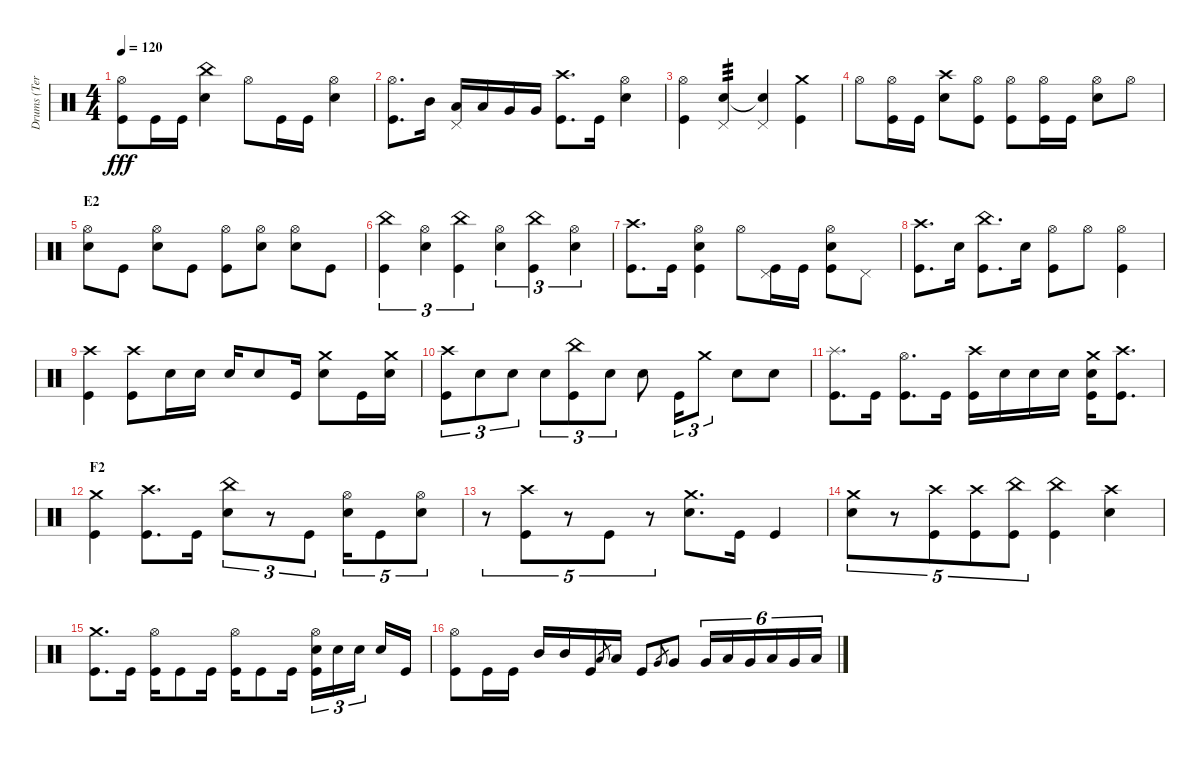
\track ("Drums (Terry Bozzio)" "Drums (Ter") {instrument percussion}
\staff {score}
\articulation defaults
\ts (4 4)
\tempo 120
\clef neutral
\ks c
("Hi-Hat (open)" "Kick (hit)").8{dy fff} "Kick (hit)".16 "Kick (hit)".16 ("China (hit)" "Snare (hit) 2").4 "Hi-Hat (open)".8 "Kick (hit)".16 "Kick (hit)".16 ("Hi-Hat (open)" "Snare (hit) 2").4 |
("Hi-Hat (open)" "Kick (hit)").8{d} "Mid Tom (hit)".16 ("Pedal Hi-Hat (hit)" "Low Tom (hit)").16 "Low Tom (hit)".16 "Very Low Tom (hit)".16 "Very Low Tom (hit)".16 ("Crash high (hit)" "Kick (hit)").8{d} "Kick (hit)".16 ("Hi-Hat (open)" "Snare (hit) 2").4 |
("Hi-Hat (open)" "Kick (hit)").4 ("Pedal Hi-Hat (hit)" "Snare (hit) 2").4{tp 3} ("Pedal Hi-Hat (hit)" "Snare (hit)"{t}).4 ("Crash medium (hit)" "Kick (hit)").4 |
"Hi-Hat (open)".8 ("Hi-Hat (open)" "Kick (hit)").16 "Kick (hit)".16 ("Crash high (hit)" "Snare (hit) 2").8 ("Hi-Hat (open)" "Kick (hit)").8 ("Hi-Hat (open)" "Kick (hit)").8 ("Hi-Hat (open)" "Kick (hit)").16 "Kick (hit)".16 ("Hi-Hat (open)" "Snare (hit) 2").8 "Hi-Hat (open)".8 |
\section ("" "E2")
("Hi-Hat (open)" "Snare (hit) 2").8 "Kick (hit)".8 ("Hi-Hat (open)" "Snare (hit) 2").8 "Kick (hit)".8 ("Hi-Hat (open)" "Kick (hit)").8 ("Hi-Hat (open)" "Snare (hit) 2").8 ("Hi-Hat (open)" "Snare (hit) 2").8 "Kick (hit)".8 |
("China (hit)" "Kick (hit)").4{tu (3 2)} ("Hi-Hat (open)" "Snare (hit) 2").4{tu (3 2)} ("China (hit)" "Kick (hit)").4{tu (3 2)} ("Hi-Hat (open)" "Snare (hit) 2").4{tu (3 2)} ("China (hit)" "Kick (hit)").4{tu (3 2)} ("Hi-Hat (open)" "Snare (hit) 2").4{tu (3 2)} |
("Crash high (hit)" "Kick (hit)").8{d} "Kick (hit)".16 ("Hi-Hat (open)" "Snare (hit) 2" "Kick (hit)").4 "Hi-Hat (open)".8 ("Pedal Hi-Hat (hit)" "Kick (hit)").16 "Kick (hit)".16 ("Hi-Hat (open)" "Snare (hit) 2" "Kick (hit)").8 "Pedal Hi-Hat (hit)".8 |
("Crash high (hit)" "Kick (hit)").8{d} "Snare (hit) 2".16 ("China (hit)" "Kick (hit)").8{d} "Snare (hit) 2".16 ("Hi-Hat (open)" "Kick (hit)").8 "Hi-Hat (open)".8 ("Hi-Hat (open)" "Kick (hit)").4 |
("Crash high (hit)" "Kick (hit)").4 ("Crash high (hit)" "Kick (hit)").8 "Snare (hit) 2".16 "Snare (hit) 2".16 "Snare (hit) 2".16 "Snare (hit) 2".8 "Kick (hit)".16 ("Crash medium (hit)" "Snare (hit) 2").8 "Kick (hit)".16 ("Crash medium (hit)" "Snare (hit) 2").16 |
("Crash high (hit)" "Kick (hit)").8{tu (3 2)} "Snare (hit) 2".8{tu (3 2)} "Snare (hit) 2".8{tu (3 2)} "Snare (hit) 2".8{tu (3 2)} ("China (hit)" "Kick (hit)").8{tu (3 2)} "Snare (hit) 2".8{tu (3 2)} "Snare (hit) 2".8 "Kick (hit)".16{tu (3 2)} "Crash medium (hit)".8{tu (3 2)} "Snare (hit) 2".8 "Snare (hit) 2".8 |
("Splash (hit)" "Kick (hit)").8{d} "Kick (hit)".16 ("Hi-Hat (open)" "Kick (hit)").8{d} "Kick (hit)".16 ("Crash high (hit)" "Kick (hit)").16 "Snare (hit) 2".16 "Snare (hit) 2".16 "Snare (hit) 2".16 ("Crash medium (hit)" "Snare (hit) 2" "Kick (hit)").16 ("Crash high (hit)" "Kick (hit)").8{d} |
\section ("" "F2")
("Crash medium (hit)" "Kick (hit)").4 ("Crash high (hit)" "Kick (hit)").8{d} "Kick (hit)".16 ("China (hit)" "Snare (hit) 2").8{tu (3 2)} r.8{tu (3 2)} "Kick (hit)".8{tu (3 2)} ("Hi-Hat (open)" "Snare (hit) 2").16{tu (5 4)} "Kick (hit)".8{tu (5 4)} ("Hi-Hat (open)" "Snare (hit) 2").8{tu (5 4)} |
r.8{tu (5 4)} ("Crash high (hit)" "Kick (hit)").8{tu (5 4)} r.8{tu (5 4)} "Kick (hit)".8{tu (5 4)} r.8{tu (5 4)} ("Crash medium (hit)" "Snare (hit) 2").8{d} "Kick (hit)".16 "Kick (hit)".4 |
("Crash medium (hit)" "Snare (hit) 2").8{tu (5 4)} r.8{tu (5 4)} ("Crash high (hit)" "Kick (hit)").8{tu (5 4)} ("Crash high (hit)" "Kick (hit)").8{tu (5 4)} ("China (hit)" "Kick (hit)").8{tu (5 4)} ("China (hit)" "Kick (hit)").4 ("Crash high (hit)" "Snare (hit) 2").4 |
("Crash medium (hit)" "Kick (hit)").8{d} "Kick (hit)".16 ("Hi-Hat (open)" "Kick (hit)").16 "Kick (hit)".8 "Kick (hit)".16 ("Hi-Hat (open)" "Kick (hit)").16 "Kick (hit)".8 "Kick (hit)".16 ("Hi-Hat (open)" "Snare (hit) 2" "Kick (hit)").16{tu (3 2)} "Snare (hit) 2".16{tu (3 2)} "Snare (hit) 2".16{tu (3 2)} "Snare (hit) 2".16 "Kick (hit)".16 |
("Hi-Hat (open)" "Kick (hit)").8 "Kick (hit)".16 "Kick (hit)".16 "Mid Tom (hit)".16 "Mid Tom (hit)".16 "Kick (hit)".16 "Low Tom (hit)".8{gr} "Low Tom (hit)".16 "Kick (hit)".8 "Very Low Tom (hit)".8{gr} "Very Low Tom (hit)".8 "Very Low Tom (hit)".16{tu (6 4)} "Low Floor Tom (hit)".16{tu (6 4)} "Very Low Tom (hit)".16{tu (6 4)} "Low Floor Tom (hit)".16{tu (6 4)} "Very Low Tom (hit)".16{tu (6 4)} "Low Floor Tom (hit)".16{tu (6 4)}
